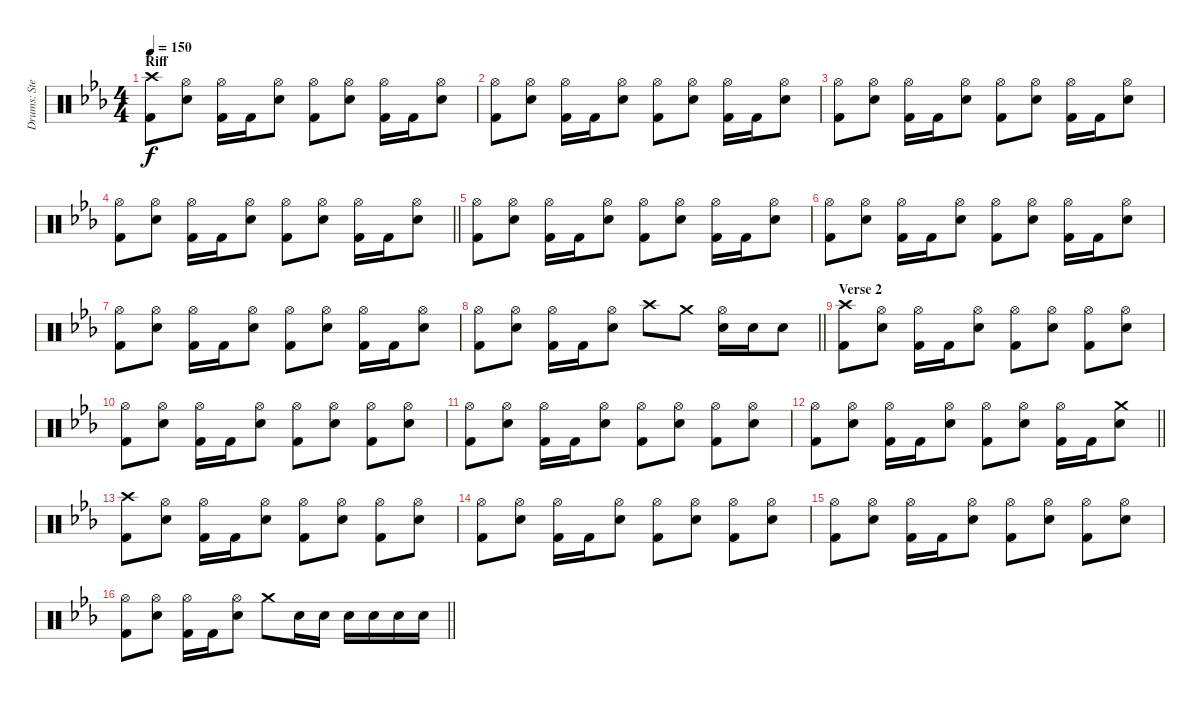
\track ("Drums: Stefan Svantesson" "Drums: Ste") {instrument percussion}
\staff {score}
\articulation defaults
\ts (4 4)
\section ("" "Riff")
\tempo 150
\clef neutral
\ks cminor
("Crash high (hit)" "Kick (hit) 2").8{dy f} ("Hi-Hat (open)" "Electric Snare (hit)").8 ("Hi-Hat (open)" "Kick (hit) 2").16 "Kick (hit) 2".16 ("Hi-Hat (open)" "Electric Snare (hit)").8 ("Hi-Hat (open)" "Kick (hit) 2").8 ("Hi-Hat (open)" "Electric Snare (hit)").8 ("Hi-Hat (open)" "Kick (hit) 2").16 "Kick (hit) 2".16 ("Hi-Hat (open)" "Electric Snare (hit)").8 |
("Hi-Hat (open)" "Kick (hit) 2").8 ("Hi-Hat (open)" "Electric Snare (hit)").8 ("Hi-Hat (open)" "Kick (hit) 2").16 "Kick (hit) 2".16 ("Hi-Hat (open)" "Electric Snare (hit)").8 ("Hi-Hat (open)" "Kick (hit) 2").8 ("Hi-Hat (open)" "Electric Snare (hit)").8 ("Hi-Hat (open)" "Kick (hit) 2").16 "Kick (hit) 2".16 ("Hi-Hat (open)" "Electric Snare (hit)").8 |
("Hi-Hat (open)" "Kick (hit) 2").8 ("Hi-Hat (open)" "Electric Snare (hit)").8 ("Hi-Hat (open)" "Kick (hit) 2").16 "Kick (hit) 2".16 ("Hi-Hat (open)" "Electric Snare (hit)").8 ("Hi-Hat (open)" "Kick (hit) 2").8 ("Hi-Hat (open)" "Electric Snare (hit)").8 ("Hi-Hat (open)" "Kick (hit) 2").16 "Kick (hit) 2".16 ("Hi-Hat (open)" "Electric Snare (hit)").8 |
\barLineRight lightlight
("Hi-Hat (open)" "Kick (hit) 2").8 ("Hi-Hat (open)" "Electric Snare (hit)").8 ("Hi-Hat (open)" "Kick (hit) 2").16 "Kick (hit) 2".16 ("Hi-Hat (open)" "Electric Snare (hit)").8 ("Hi-Hat (open)" "Kick (hit) 2").8 ("Hi-Hat (open)" "Electric Snare (hit)").8 ("Hi-Hat (open)" "Kick (hit) 2").16 "Kick (hit) 2".16 ("Hi-Hat (open)" "Electric Snare (hit)").8 |
("Hi-Hat (open)" "Kick (hit) 2").8 ("Hi-Hat (open)" "Electric Snare (hit)").8 ("Hi-Hat (open)" "Kick (hit) 2").16 "Kick (hit) 2".16 ("Hi-Hat (open)" "Electric Snare (hit)").8 ("Hi-Hat (open)" "Kick (hit) 2").8 ("Hi-Hat (open)" "Electric Snare (hit)").8 ("Hi-Hat (open)" "Kick (hit) 2").16 "Kick (hit) 2".16 ("Hi-Hat (open)" "Electric Snare (hit)").8 |
("Hi-Hat (open)" "Kick (hit) 2").8 ("Hi-Hat (open)" "Electric Snare (hit)").8 ("Hi-Hat (open)" "Kick (hit) 2").16 "Kick (hit) 2".16 ("Hi-Hat (open)" "Electric Snare (hit)").8 ("Hi-Hat (open)" "Kick (hit) 2").8 ("Hi-Hat (open)" "Electric Snare (hit)").8 ("Hi-Hat (open)" "Kick (hit) 2").16 "Kick (hit) 2".16 ("Hi-Hat (open)" "Electric Snare (hit)").8 |
("Hi-Hat (open)" "Kick (hit) 2").8 ("Hi-Hat (open)" "Electric Snare (hit)").8 ("Hi-Hat (open)" "Kick (hit) 2").16 "Kick (hit) 2".16 ("Hi-Hat (open)" "Electric Snare (hit)").8 ("Hi-Hat (open)" "Kick (hit) 2").8 ("Hi-Hat (open)" "Electric Snare (hit)").8 ("Hi-Hat (open)" "Kick (hit) 2").16 "Kick (hit) 2".16 ("Hi-Hat (open)" "Electric Snare (hit)").8 |
\barLineRight lightlight
("Hi-Hat (open)" "Kick (hit) 2").8 ("Hi-Hat (open)" "Electric Snare (hit)").8 ("Hi-Hat (open)" "Kick (hit) 2").16 "Kick (hit) 2".16 ("Hi-Hat (open)" "Electric Snare (hit)").8 "Crash high (hit)".8 "Crash medium (hit)".8 ("Hi-Hat (open)" "Electric Snare (hit)").16 "Electric Snare (hit)".16 "Electric Snare (hit)".8 |
\section ("" "Verse 2")
("Crash high (hit)" "Kick (hit) 2").8 ("Hi-Hat (open)" "Electric Snare (hit)").8 ("Hi-Hat (open)" "Kick (hit) 2").16 "Kick (hit) 2".16 ("Hi-Hat (open)" "Electric Snare (hit)").8 ("Hi-Hat (open)" "Kick (hit) 2").8 ("Hi-Hat (open)" "Electric Snare (hit)").8 ("Hi-Hat (open)" "Kick (hit) 2").8 ("Hi-Hat (open)" "Electric Snare (hit)").8 |
("Hi-Hat (open)" "Kick (hit) 2").8 ("Hi-Hat (open)" "Electric Snare (hit)").8 ("Hi-Hat (open)" "Kick (hit) 2").16 "Kick (hit) 2".16 ("Hi-Hat (open)" "Electric Snare (hit)").8 ("Hi-Hat (open)" "Kick (hit) 2").8 ("Hi-Hat (open)" "Electric Snare (hit)").8 ("Hi-Hat (open)" "Kick (hit) 2").8 ("Hi-Hat (open)" "Electric Snare (hit)").8 |
("Hi-Hat (open)" "Kick (hit) 2").8 ("Hi-Hat (open)" "Electric Snare (hit)").8 ("Hi-Hat (open)" "Kick (hit) 2").16 "Kick (hit) 2".16 ("Hi-Hat (open)" "Electric Snare (hit)").8 ("Hi-Hat (open)" "Kick (hit) 2").8 ("Hi-Hat (open)" "Electric Snare (hit)").8 ("Hi-Hat (open)" "Kick (hit) 2").8 ("Hi-Hat (open)" "Electric Snare (hit)").8 |
\barLineRight lightlight
("Hi-Hat (open)" "Kick (hit) 2").8 ("Hi-Hat (open)" "Electric Snare (hit)").8 ("Hi-Hat (open)" "Kick (hit) 2").16 "Kick (hit) 2".16 ("Hi-Hat (open)" "Electric Snare (hit)").8 ("Hi-Hat (open)" "Kick (hit) 2").8 ("Hi-Hat (open)" "Electric Snare (hit)").8 ("Hi-Hat (open)" "Kick (hit) 2").16 "Kick (hit) 2".16 ("Crash medium (hit)" "Electric Snare (hit)").8 |
("Crash high (hit)" "Kick (hit) 2").8 ("Hi-Hat (open)" "Electric Snare (hit)").8 ("Hi-Hat (open)" "Kick (hit) 2").16 "Kick (hit) 2".16 ("Hi-Hat (open)" "Electric Snare (hit)").8 ("Hi-Hat (open)" "Kick (hit) 2").8 ("Hi-Hat (open)" "Electric Snare (hit)").8 ("Hi-Hat (open)" "Kick (hit) 2").8 ("Hi-Hat (open)" "Electric Snare (hit)").8 |
("Hi-Hat (open)" "Kick (hit) 2").8 ("Hi-Hat (open)" "Electric Snare (hit)").8 ("Hi-Hat (open)" "Kick (hit) 2").16 "Kick (hit) 2".16 ("Hi-Hat (open)" "Electric Snare (hit)").8 ("Hi-Hat (open)" "Kick (hit) 2").8 ("Hi-Hat (open)" "Electric Snare (hit)").8 ("Hi-Hat (open)" "Kick (hit) 2").8 ("Hi-Hat (open)" "Electric Snare (hit)").8 |
("Hi-Hat (open)" "Kick (hit) 2").8 ("Hi-Hat (open)" "Electric Snare (hit)").8 ("Hi-Hat (open)" "Kick (hit) 2").16 "Kick (hit) 2".16 ("Hi-Hat (open)" "Electric Snare (hit)").8 ("Hi-Hat (open)" "Kick (hit) 2").8 ("Hi-Hat (open)" "Electric Snare (hit)").8 ("Hi-Hat (open)" "Kick (hit) 2").8 ("Hi-Hat (open)" "Electric Snare (hit)").8 |
\barLineRight lightlight
("Hi-Hat (open)" "Kick (hit) 2").8 ("Hi-Hat (open)" "Electric Snare (hit)").8 ("Hi-Hat (open)" "Kick (hit) 2").16 "Kick (hit) 2".16 ("Hi-Hat (open)" "Electric Snare (hit)").8 "Crash medium (hit)".8 "Electric Snare (hit)".16 "Electric Snare (hit)".16 "Electric Snare (hit)".16 "Electric Snare (hit)".16 "Electric Snare (hit)".16 "Electric Snare (hit)".16
